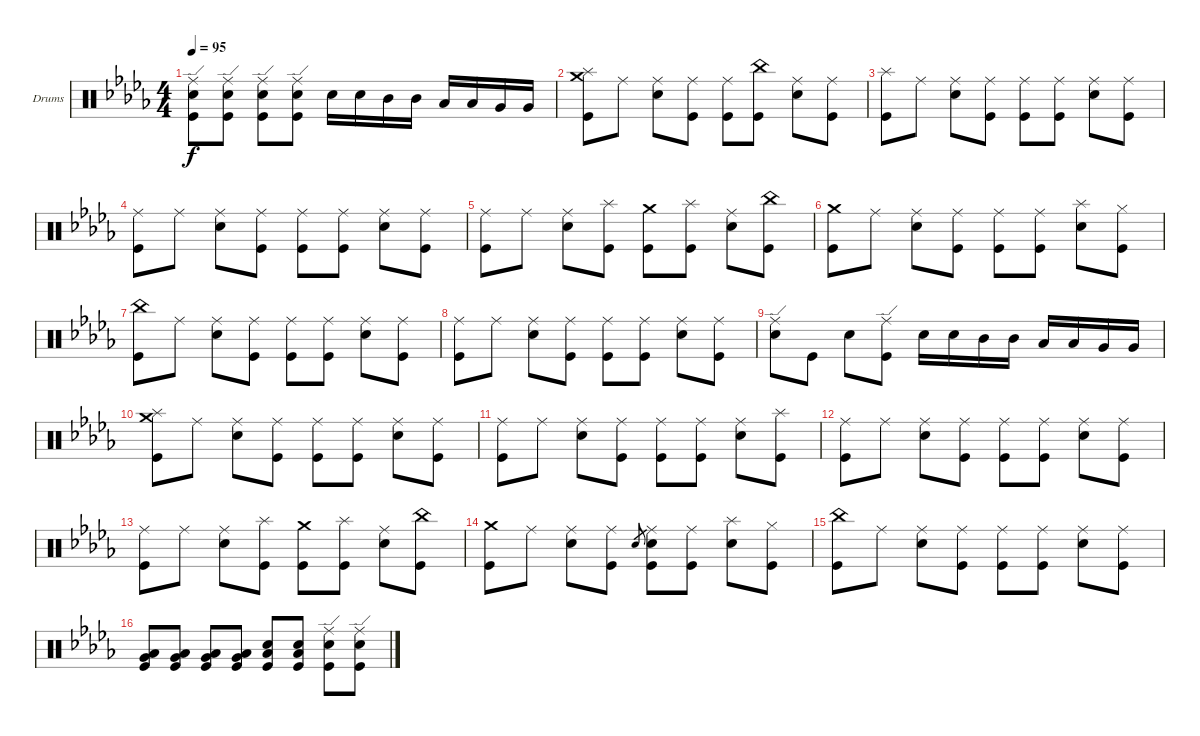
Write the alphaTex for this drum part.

\bracketExtendMode groupsimilarinstruments
\firstSystemTrackNameOrientation horizontal
\otherSystemsTrackNameOrientation horizontal
\track ("Drumkit" "Drums") {instrument percussion}
\staff {score}
\articulation defaults
\ts (4 4)
\tempo 95
\clef neutral
\ks bbminor
("Kick (hit)" "Snare (hit) 2" "Ride (edge)").8{dy f} ("Kick (hit)" "Ride (edge)" "Snare (hit) 2").8 ("Kick (hit)" "Ride (edge)" "Snare (hit) 2").8 ("Kick (hit)" "Ride (edge)" "Snare (hit) 2").8 "Snare (hit) 2".16 "Snare (hit) 2".16 "Mid Tom (hit)".16 "Mid Tom (hit)".16 "Low Tom (hit)".16 "Low Tom (hit)".16 "Very Low Tom (hit)".16 "Very Low Tom (hit)".16 |
\scale
0.333333 ("Crash medium (hit)" "Kick (hit)" "Splash (hit)").8 "Ride (middle)".8 ("Ride (middle)" "Snare (hit) 2").8 ("Ride (middle)" "Kick (hit)").8 ("Ride (middle)" "Kick (hit)").8 ("Kick (hit)" "China (hit)").8 ("Ride (middle)" "Snare (hit) 2").8 ("Kick (hit)" "Ride (middle)").8 |
\scale
0.333333 ("Kick (hit)" "Splash (hit)").8 "Ride (middle)".8 ("Ride (middle)" "Snare (hit) 2").8 ("Ride (middle)" "Kick (hit)").8 ("Ride (middle)" "Kick (hit)").8 ("Ride (middle)" "Kick (hit)").8 ("Ride (middle)" "Snare (hit) 2").8 ("Kick (hit)" "Ride (middle)").8 |
\scale
0.333333 ("Kick (hit)" "Ride (middle)").8 "Ride (middle)".8 ("Ride (middle)" "Snare (hit) 2").8 ("Ride (middle)" "Kick (hit)").8 ("Ride (middle)" "Kick (hit)").8 ("Ride (middle)" "Kick (hit)").8 ("Ride (middle)" "Snare (hit) 2").8 ("Ride (middle)" "Kick (hit)").8 |
\scale
0.333333 ("Kick (hit)" "Ride (middle)").8 "Ride (middle)".8 ("Ride (middle)" "Snare (hit) 2").8 ("Kick (hit)" "Splash (hit)").8 ("Kick (hit)" "Crash medium (hit)").8 ("Kick (hit)" "Splash (hit)").8 ("Ride (middle)" "Snare (hit) 2").8 ("Kick (hit)" "China (hit)").8 |
\scale
0.333333 ("Crash medium (hit)" "Kick (hit)").8 "Ride (middle)".8 ("Ride (middle)" "Snare (hit) 2").8 ("Ride (middle)" "Kick (hit)").8 ("Ride (middle)" "Kick (hit)").8 ("Ride (middle)" "Kick (hit)").8 ("Snare (hit) 2" "Splash (hit)").8 ("Kick (hit)" "Hi-Hat (closed)").8 |
\scale
0.333333 ("Kick (hit)" "China (hit)").8 "Ride (middle)".8 ("Ride (middle)" "Snare (hit) 2").8 ("Ride (middle)" "Kick (hit)").8 ("Ride (middle)" "Kick (hit)").8 ("Ride (middle)" "Kick (hit)").8 ("Ride (middle)" "Snare (hit) 2").8 ("Ride (middle)" "Kick (hit)").8 |
\scale
0.333333 ("Kick (hit)" "Ride (middle)").8 "Ride (middle)".8 ("Ride (middle)" "Snare (hit) 2").8 ("Ride (middle)" "Kick (hit)").8 ("Ride (middle)" "Kick (hit)").8 ("Ride (middle)" "Kick (hit)").8 ("Ride (middle)" "Snare (hit) 2").8 ("Ride (middle)" "Kick (hit)").8 |
\scale
0.333333 ("Snare (hit) 2" "Ride (edge)").8 "Kick (hit)".8 "Snare (hit) 2".8 ("Kick (hit)" "Ride (edge)").8 "Snare (hit) 2".16 "Snare (hit) 2".16 "Mid Tom (hit)".16 "Mid Tom (hit)".16 "Low Tom (hit)".16 "Low Tom (hit)".16 "Very Low Tom (hit)".16 "Very Low Tom (hit)".16 |
\scale
0.333333 ("Crash medium (hit)" "Kick (hit)" "Splash (hit)").8 "Ride (middle)".8 ("Ride (middle)" "Snare (hit) 2").8 ("Ride (middle)" "Kick (hit)").8 ("Ride (middle)" "Kick (hit)").8 ("Ride (middle)" "Kick (hit)").8 ("Ride (middle)" "Snare (hit) 2").8 ("Kick (hit)" "Ride (middle)").8 |
\scale
0.333333 ("Kick (hit)" "Ride (middle)").8 "Ride (middle)".8 ("Ride (middle)" "Snare (hit) 2").8 ("Ride (middle)" "Kick (hit)").8 ("Ride (middle)" "Kick (hit)").8 ("Ride (middle)" "Kick (hit)").8 ("Ride (middle)" "Snare (hit) 2").8 ("Kick (hit)" "Splash (hit)").8 |
\scale
0.333333 ("Kick (hit)" "Ride (middle)").8 "Ride (middle)".8 ("Ride (middle)" "Snare (hit) 2").8 ("Ride (middle)" "Kick (hit)").8 ("Ride (middle)" "Kick (hit)").8 ("Ride (middle)" "Kick (hit)").8 ("Ride (middle)" "Snare (hit) 2").8 ("Ride (middle)" "Kick (hit)").8 |
\scale
0.333333 ("Kick (hit)" "Ride (middle)").8 "Ride (middle)".8 ("Ride (middle)" "Snare (hit) 2").8 ("Kick (hit)" "Splash (hit)").8 ("Kick (hit)" "Crash medium (hit)").8 ("Kick (hit)" "Splash (hit)").8 ("Ride (middle)" "Snare (hit) 2").8 ("Kick (hit)" "China (hit)").8 |
\scale
0.333333 ("Crash medium (hit)" "Kick (hit)").8 "Ride (middle)".8 ("Ride (middle)" "Snare (hit) 2").8 ("Ride (middle)" "Kick (hit)").8 "Snare (hit) 2".8{gr} ("Snare (hit) 2" "Ride (middle)" "Kick (hit)").8 ("Ride (middle)" "Kick (hit)").8 ("Snare (hit) 2" "Splash (hit)").8 ("Kick (hit)" "Hi-Hat (closed)").8 |
\scale
0.333333 ("Kick (hit)" "China (hit)").8 "Ride (middle)".8 ("Ride (middle)" "Snare (hit) 2").8 ("Ride (middle)" "Kick (hit)").8 ("Ride (middle)" "Kick (hit)").8 ("Ride (middle)" "Kick (hit)").8 ("Ride (middle)" "Snare (hit) 2").8 ("Ride (middle)" "Kick (hit)").8 |
\scale
0.333333 ("Low Tom (hit)" "Very Low Tom (hit)" "Kick (hit)").8 ("Low Tom (hit)" "Very Low Tom (hit)" "Kick (hit)").8 ("Low Tom (hit)" "Very Low Tom (hit)" "Kick (hit)").8 ("Low Tom (hit)" "Very Low Tom (hit)" "Kick (hit)").8 ("Low Tom (hit)" "Kick (hit)" "Snare (hit) 2").8 ("Low Tom (hit)" "Kick (hit)" "Snare (hit) 2").8 ("Kick (hit)" "Ride (edge)" "Snare (hit) 2").8 ("Kick (hit)" "Ride (edge)" "Snare (hit) 2").8
